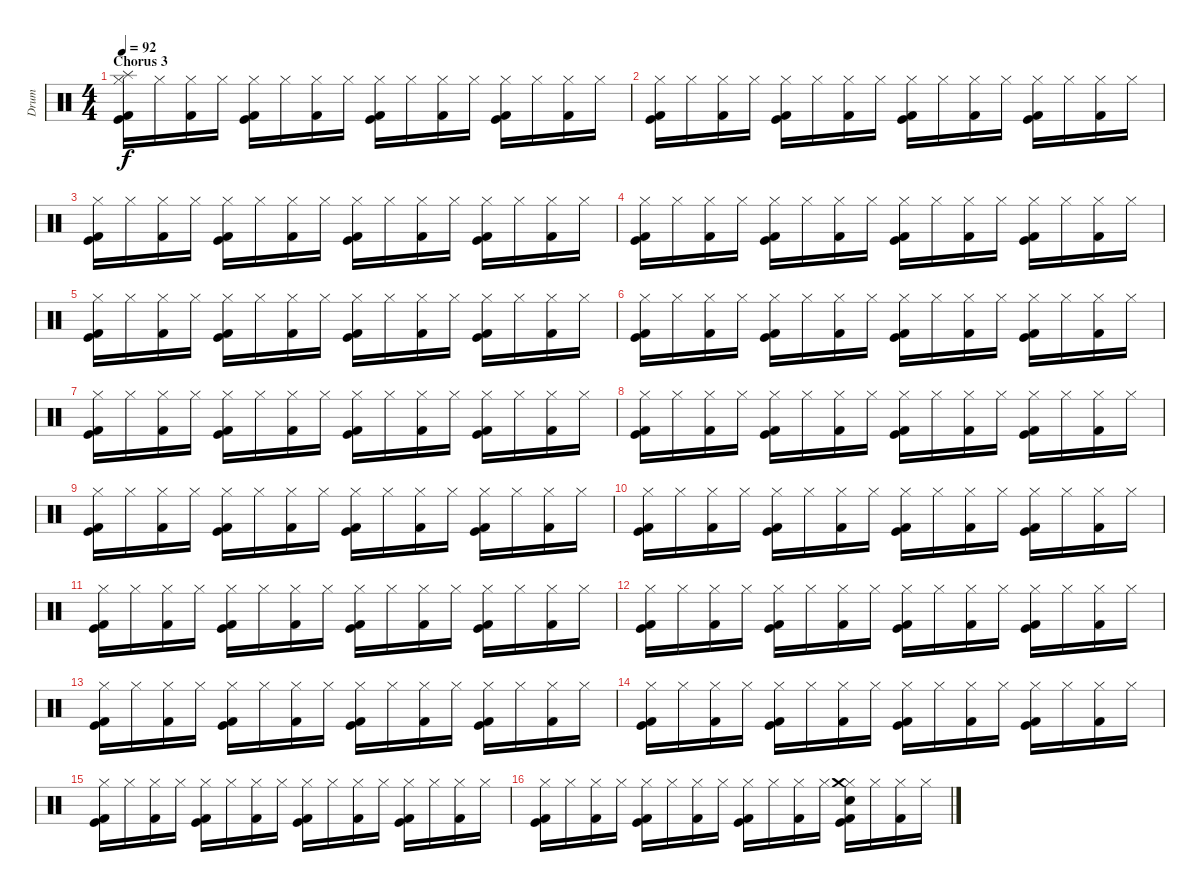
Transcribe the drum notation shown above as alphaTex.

\track ("Drum" "Drum") {instrument percussion}
\staff {score}
\articulation defaults
\ts (4 4)
\section ("" "Chorus 3")
\tempo 92
\clef neutral
\ks c
("Hi-Hat (closed)" "Splash (hit)" "Kick (hit)" "Kick (hit) 2").16{dy f} "Hi-Hat (closed)".16 ("Hi-Hat (closed)" "Kick (hit) 2").16 "Hi-Hat (closed)".16 ("Hi-Hat (closed)" "Kick (hit)" "Kick (hit) 2").16 "Hi-Hat (closed)".16 ("Hi-Hat (closed)" "Kick (hit) 2").16 "Hi-Hat (closed)".16 ("Hi-Hat (closed)" "Kick (hit)" "Kick (hit) 2").16 "Hi-Hat (closed)".16 ("Hi-Hat (closed)" "Kick (hit) 2").16 "Hi-Hat (closed)".16 ("Hi-Hat (closed)" "Kick (hit)" "Kick (hit) 2").16 "Hi-Hat (closed)".16 ("Hi-Hat (closed)" "Kick (hit) 2").16 "Hi-Hat (closed)".16 |
("Hi-Hat (closed)" "Kick (hit)" "Kick (hit) 2").16 "Hi-Hat (closed)".16 ("Hi-Hat (closed)" "Kick (hit) 2").16 "Hi-Hat (closed)".16 ("Hi-Hat (closed)" "Kick (hit)" "Kick (hit) 2").16 "Hi-Hat (closed)".16 ("Hi-Hat (closed)" "Kick (hit) 2").16 "Hi-Hat (closed)".16 ("Hi-Hat (closed)" "Kick (hit)" "Kick (hit) 2").16 "Hi-Hat (closed)".16 ("Hi-Hat (closed)" "Kick (hit) 2").16 "Hi-Hat (closed)".16 ("Hi-Hat (closed)" "Kick (hit)" "Kick (hit) 2").16 "Hi-Hat (closed)".16 ("Hi-Hat (closed)" "Kick (hit) 2").16 "Hi-Hat (closed)".16 |
("Hi-Hat (closed)" "Kick (hit)" "Kick (hit) 2").16 "Hi-Hat (closed)".16 ("Hi-Hat (closed)" "Kick (hit) 2").16 "Hi-Hat (closed)".16 ("Hi-Hat (closed)" "Kick (hit)" "Kick (hit) 2").16 "Hi-Hat (closed)".16 ("Hi-Hat (closed)" "Kick (hit) 2").16 "Hi-Hat (closed)".16 ("Hi-Hat (closed)" "Kick (hit)" "Kick (hit) 2").16 "Hi-Hat (closed)".16 ("Hi-Hat (closed)" "Kick (hit) 2").16 "Hi-Hat (closed)".16 ("Hi-Hat (closed)" "Kick (hit)" "Kick (hit) 2").16 "Hi-Hat (closed)".16 ("Hi-Hat (closed)" "Kick (hit) 2").16 "Hi-Hat (closed)".16 |
("Hi-Hat (closed)" "Kick (hit)" "Kick (hit) 2").16 "Hi-Hat (closed)".16 ("Hi-Hat (closed)" "Kick (hit) 2").16 "Hi-Hat (closed)".16 ("Hi-Hat (closed)" "Kick (hit)" "Kick (hit) 2").16 "Hi-Hat (closed)".16 ("Hi-Hat (closed)" "Kick (hit) 2").16 "Hi-Hat (closed)".16 ("Hi-Hat (closed)" "Kick (hit)" "Kick (hit) 2").16 "Hi-Hat (closed)".16 ("Hi-Hat (closed)" "Kick (hit) 2").16 "Hi-Hat (closed)".16 ("Hi-Hat (closed)" "Kick (hit)" "Kick (hit) 2").16 "Hi-Hat (closed)".16 ("Hi-Hat (closed)" "Kick (hit) 2").16 "Hi-Hat (closed)".16 |
("Hi-Hat (closed)" "Kick (hit)" "Kick (hit) 2").16 "Hi-Hat (closed)".16 ("Hi-Hat (closed)" "Kick (hit) 2").16 "Hi-Hat (closed)".16 ("Hi-Hat (closed)" "Kick (hit)" "Kick (hit) 2").16 "Hi-Hat (closed)".16 ("Hi-Hat (closed)" "Kick (hit) 2").16 "Hi-Hat (closed)".16 ("Hi-Hat (closed)" "Kick (hit)" "Kick (hit) 2").16 "Hi-Hat (closed)".16 ("Hi-Hat (closed)" "Kick (hit) 2").16 "Hi-Hat (closed)".16 ("Hi-Hat (closed)" "Kick (hit)" "Kick (hit) 2").16 "Hi-Hat (closed)".16 ("Hi-Hat (closed)" "Kick (hit) 2").16 "Hi-Hat (closed)".16 |
("Hi-Hat (closed)" "Kick (hit)" "Kick (hit) 2").16 "Hi-Hat (closed)".16 ("Hi-Hat (closed)" "Kick (hit) 2").16 "Hi-Hat (closed)".16 ("Hi-Hat (closed)" "Kick (hit)" "Kick (hit) 2").16 "Hi-Hat (closed)".16 ("Hi-Hat (closed)" "Kick (hit) 2").16 "Hi-Hat (closed)".16 ("Hi-Hat (closed)" "Kick (hit)" "Kick (hit) 2").16 "Hi-Hat (closed)".16 ("Hi-Hat (closed)" "Kick (hit) 2").16 "Hi-Hat (closed)".16 ("Hi-Hat (closed)" "Kick (hit)" "Kick (hit) 2").16 "Hi-Hat (closed)".16 ("Hi-Hat (closed)" "Kick (hit) 2").16 "Hi-Hat (closed)".16 |
("Hi-Hat (closed)" "Kick (hit)" "Kick (hit) 2").16 "Hi-Hat (closed)".16 ("Hi-Hat (closed)" "Kick (hit) 2").16 "Hi-Hat (closed)".16 ("Hi-Hat (closed)" "Kick (hit)" "Kick (hit) 2").16 "Hi-Hat (closed)".16 ("Hi-Hat (closed)" "Kick (hit) 2").16 "Hi-Hat (closed)".16 ("Hi-Hat (closed)" "Kick (hit)" "Kick (hit) 2").16 "Hi-Hat (closed)".16 ("Hi-Hat (closed)" "Kick (hit) 2").16 "Hi-Hat (closed)".16 ("Hi-Hat (closed)" "Kick (hit)" "Kick (hit) 2").16 "Hi-Hat (closed)".16 ("Hi-Hat (closed)" "Kick (hit) 2").16 "Hi-Hat (closed)".16 |
("Hi-Hat (closed)" "Kick (hit)" "Kick (hit) 2").16 "Hi-Hat (closed)".16 ("Hi-Hat (closed)" "Kick (hit) 2").16 "Hi-Hat (closed)".16 ("Hi-Hat (closed)" "Kick (hit)" "Kick (hit) 2").16 "Hi-Hat (closed)".16 ("Hi-Hat (closed)" "Kick (hit) 2").16 "Hi-Hat (closed)".16 ("Hi-Hat (closed)" "Kick (hit)" "Kick (hit) 2").16 "Hi-Hat (closed)".16 ("Hi-Hat (closed)" "Kick (hit) 2").16 "Hi-Hat (closed)".16 ("Hi-Hat (closed)" "Kick (hit)" "Kick (hit) 2").16 "Hi-Hat (closed)".16 ("Hi-Hat (closed)" "Kick (hit) 2").16 "Hi-Hat (closed)".16 |
("Hi-Hat (closed)" "Kick (hit)" "Kick (hit) 2").16 "Hi-Hat (closed)".16 ("Hi-Hat (closed)" "Kick (hit) 2").16 "Hi-Hat (closed)".16 ("Hi-Hat (closed)" "Kick (hit)" "Kick (hit) 2").16 "Hi-Hat (closed)".16 ("Hi-Hat (closed)" "Kick (hit) 2").16 "Hi-Hat (closed)".16 ("Hi-Hat (closed)" "Kick (hit)" "Kick (hit) 2").16 "Hi-Hat (closed)".16 ("Hi-Hat (closed)" "Kick (hit) 2").16 "Hi-Hat (closed)".16 ("Hi-Hat (closed)" "Kick (hit)" "Kick (hit) 2").16 "Hi-Hat (closed)".16 ("Hi-Hat (closed)" "Kick (hit) 2").16 "Hi-Hat (closed)".16 |
("Hi-Hat (closed)" "Kick (hit)" "Kick (hit) 2").16 "Hi-Hat (closed)".16 ("Hi-Hat (closed)" "Kick (hit) 2").16 "Hi-Hat (closed)".16 ("Hi-Hat (closed)" "Kick (hit)" "Kick (hit) 2").16 "Hi-Hat (closed)".16 ("Hi-Hat (closed)" "Kick (hit) 2").16 "Hi-Hat (closed)".16 ("Hi-Hat (closed)" "Kick (hit)" "Kick (hit) 2").16 "Hi-Hat (closed)".16 ("Hi-Hat (closed)" "Kick (hit) 2").16 "Hi-Hat (closed)".16 ("Hi-Hat (closed)" "Kick (hit)" "Kick (hit) 2").16 "Hi-Hat (closed)".16 ("Hi-Hat (closed)" "Kick (hit) 2").16 "Hi-Hat (closed)".16 |
("Hi-Hat (closed)" "Kick (hit)" "Kick (hit) 2").16 "Hi-Hat (closed)".16 ("Hi-Hat (closed)" "Kick (hit) 2").16 "Hi-Hat (closed)".16 ("Hi-Hat (closed)" "Kick (hit)" "Kick (hit) 2").16 "Hi-Hat (closed)".16 ("Hi-Hat (closed)" "Kick (hit) 2").16 "Hi-Hat (closed)".16 ("Hi-Hat (closed)" "Kick (hit)" "Kick (hit) 2").16 "Hi-Hat (closed)".16 ("Hi-Hat (closed)" "Kick (hit) 2").16 "Hi-Hat (closed)".16 ("Hi-Hat (closed)" "Kick (hit)" "Kick (hit) 2").16 "Hi-Hat (closed)".16 ("Hi-Hat (closed)" "Kick (hit) 2").16 "Hi-Hat (closed)".16 |
("Hi-Hat (closed)" "Kick (hit)" "Kick (hit) 2").16 "Hi-Hat (closed)".16 ("Hi-Hat (closed)" "Kick (hit) 2").16 "Hi-Hat (closed)".16 ("Hi-Hat (closed)" "Kick (hit)" "Kick (hit) 2").16 "Hi-Hat (closed)".16 ("Hi-Hat (closed)" "Kick (hit) 2").16 "Hi-Hat (closed)".16 ("Hi-Hat (closed)" "Kick (hit)" "Kick (hit) 2").16 "Hi-Hat (closed)".16 ("Hi-Hat (closed)" "Kick (hit) 2").16 "Hi-Hat (closed)".16 ("Hi-Hat (closed)" "Kick (hit)" "Kick (hit) 2").16 "Hi-Hat (closed)".16 ("Hi-Hat (closed)" "Kick (hit) 2").16 "Hi-Hat (closed)".16 |
("Hi-Hat (closed)" "Kick (hit)" "Kick (hit) 2").16 "Hi-Hat (closed)".16 ("Hi-Hat (closed)" "Kick (hit) 2").16 "Hi-Hat (closed)".16 ("Hi-Hat (closed)" "Kick (hit)" "Kick (hit) 2").16 "Hi-Hat (closed)".16 ("Hi-Hat (closed)" "Kick (hit) 2").16 "Hi-Hat (closed)".16 ("Hi-Hat (closed)" "Kick (hit)" "Kick (hit) 2").16 "Hi-Hat (closed)".16 ("Hi-Hat (closed)" "Kick (hit) 2").16 "Hi-Hat (closed)".16 ("Hi-Hat (closed)" "Kick (hit)" "Kick (hit) 2").16 "Hi-Hat (closed)".16 ("Hi-Hat (closed)" "Kick (hit) 2").16 "Hi-Hat (closed)".16 |
("Hi-Hat (closed)" "Kick (hit)" "Kick (hit) 2").16 "Hi-Hat (closed)".16 ("Hi-Hat (closed)" "Kick (hit) 2").16 "Hi-Hat (closed)".16 ("Hi-Hat (closed)" "Kick (hit)" "Kick (hit) 2").16 "Hi-Hat (closed)".16 ("Hi-Hat (closed)" "Kick (hit) 2").16 "Hi-Hat (closed)".16 ("Hi-Hat (closed)" "Kick (hit)" "Kick (hit) 2").16 "Hi-Hat (closed)".16 ("Hi-Hat (closed)" "Kick (hit) 2").16 "Hi-Hat (closed)".16 ("Hi-Hat (closed)" "Kick (hit)" "Kick (hit) 2").16 "Hi-Hat (closed)".16 ("Hi-Hat (closed)" "Kick (hit) 2").16 "Hi-Hat (closed)".16 |
("Hi-Hat (closed)" "Kick (hit)" "Kick (hit) 2").16 "Hi-Hat (closed)".16 ("Hi-Hat (closed)" "Kick (hit) 2").16 "Hi-Hat (closed)".16 ("Hi-Hat (closed)" "Kick (hit)" "Kick (hit) 2").16 "Hi-Hat (closed)".16 ("Hi-Hat (closed)" "Kick (hit) 2").16 "Hi-Hat (closed)".16 ("Hi-Hat (closed)" "Kick (hit)" "Kick (hit) 2").16 "Hi-Hat (closed)".16 ("Hi-Hat (closed)" "Kick (hit) 2").16 "Hi-Hat (closed)".16 ("Hi-Hat (closed)" "Kick (hit)" "Kick (hit) 2").16 "Hi-Hat (closed)".16 ("Hi-Hat (closed)" "Kick (hit) 2").16 "Hi-Hat (closed)".16 |
("Hi-Hat (closed)" "Kick (hit)" "Kick (hit) 2").16 "Hi-Hat (closed)".16 ("Hi-Hat (closed)" "Kick (hit) 2").16 "Hi-Hat (closed)".16 ("Hi-Hat (closed)" "Kick (hit)" "Kick (hit) 2").16 "Hi-Hat (closed)".16 ("Hi-Hat (closed)" "Kick (hit) 2").16 "Hi-Hat (closed)".16 ("Hi-Hat (closed)" "Kick (hit)" "Kick (hit) 2").16 "Hi-Hat (closed)".16 ("Hi-Hat (closed)" "Kick (hit) 2").16 "Hi-Hat (closed)".16 ("Hi-Hat (closed)" "Crash medium (hit)" "Snare (hit) 2" "Kick (hit)" "Kick (hit) 2").16 "Hi-Hat (closed)".16 ("Hi-Hat (closed)" "Kick (hit) 2").16 "Hi-Hat (closed)".16
